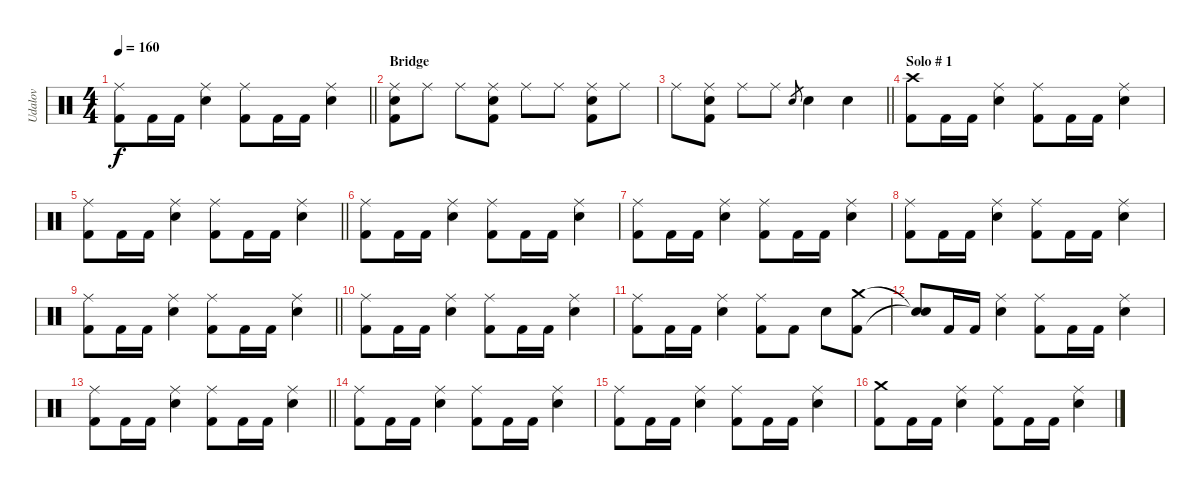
\track ("Udalov" "Udalov") {instrument percussion}
\staff {score}
\articulation defaults
\ts (4 4)
\tempo 160
\clef neutral
\barLineRight lightlight
\ks c
("Kick (hit) 2" "Ride (middle)").8{dy f} "Kick (hit) 2".16 "Kick (hit) 2".16 ("Snare (hit) 2" "Ride (middle)").4 ("Kick (hit) 2" "Ride (middle)").8 "Kick (hit) 2".16 "Kick (hit) 2".16 ("Snare (hit) 2" "Ride (middle)").4 |
\section ("" "Bridge")
("Snare (hit) 2" "Ride (middle)" "Kick (hit) 2").8 "Ride (middle)".8 "Ride (middle)".8 ("Snare (hit) 2" "Ride (middle)" "Kick (hit) 2").8 "Ride (middle)".8 "Ride (middle)".8 ("Snare (hit) 2" "Ride (middle)" "Kick (hit) 2").8 "Ride (middle)".8 |
\barLineRight lightlight "Ride (middle)".8
("Snare (hit) 2" "Ride (middle)" "Kick (hit) 2").8 "Ride (middle)".8 "Ride (middle)".8 "Snare (hit) 2".8{gr} "Snare (hit) 2".4 "Snare (hit) 2".4 |
\section ("" "Solo # 1")
("Kick (hit) 2" "Crash high (hit)").8 "Kick (hit) 2".16 "Kick (hit) 2".16 ("Snare (hit) 2" "Ride (middle)").4 ("Kick (hit) 2" "Ride (middle)").8 "Kick (hit) 2".16 "Kick (hit) 2".16 ("Snare (hit) 2" "Ride (middle)").4 |
\barLineRight lightlight
("Kick (hit) 2" "Ride (middle)").8 "Kick (hit) 2".16 "Kick (hit) 2".16 ("Snare (hit) 2" "Ride (middle)").4 ("Kick (hit) 2" "Ride (middle)").8 "Kick (hit) 2".16 "Kick (hit) 2".16 ("Snare (hit) 2" "Ride (middle)").4 |
("Kick (hit) 2" "Ride (middle)").8 "Kick (hit) 2".16 "Kick (hit) 2".16 ("Snare (hit) 2" "Ride (middle)").4 ("Kick (hit) 2" "Ride (middle)").8 "Kick (hit) 2".16 "Kick (hit) 2".16 ("Snare (hit) 2" "Ride (middle)").4 |
("Kick (hit) 2" "Ride (middle)").8 "Kick (hit) 2".16 "Kick (hit) 2".16 ("Snare (hit) 2" "Ride (middle)").4 ("Kick (hit) 2" "Ride (middle)").8 "Kick (hit) 2".16 "Kick (hit) 2".16 ("Snare (hit) 2" "Ride (middle)").4 |
("Kick (hit) 2" "Ride (middle)").8 "Kick (hit) 2".16 "Kick (hit) 2".16 ("Snare (hit) 2" "Ride (middle)").4 ("Kick (hit) 2" "Ride (middle)").8 "Kick (hit) 2".16 "Kick (hit) 2".16 ("Snare (hit) 2" "Ride (middle)").4 |
\barLineRight lightlight
("Kick (hit) 2" "Ride (middle)").8 "Kick (hit) 2".16 "Kick (hit) 2".16 ("Snare (hit) 2" "Ride (middle)").4 ("Kick (hit) 2" "Ride (middle)").8 "Kick (hit) 2".16 "Kick (hit) 2".16 ("Snare (hit) 2" "Ride (middle)").4 |
("Kick (hit) 2" "Ride (middle)").8 "Kick (hit) 2".16 "Kick (hit) 2".16 ("Snare (hit) 2" "Ride (middle)").4 ("Kick (hit) 2" "Ride (middle)").8 "Kick (hit) 2".16 "Kick (hit) 2".16 ("Snare (hit) 2" "Ride (middle)").4 |
("Kick (hit) 2" "Ride (middle)").8 "Kick (hit) 2".16 "Kick (hit) 2".16 ("Snare (hit) 2" "Ride (middle)").4 ("Kick (hit) 2" "Ride (middle)").8 "Kick (hit) 2".8 "Snare (hit) 2".8 ("Kick (hit) 2" "Crash medium (hit)").8 |
("Snare (hit)"{t} "Snare (hit)"{t}).8 "Kick (hit) 2".16 "Kick (hit) 2".16 ("Snare (hit) 2" "Ride (middle)").4 ("Kick (hit) 2" "Ride (middle)").8 "Kick (hit) 2".16 "Kick (hit) 2".16 ("Snare (hit) 2" "Ride (middle)").4 |
\barLineRight lightlight
("Kick (hit) 2" "Ride (middle)").8 "Kick (hit) 2".16 "Kick (hit) 2".16 ("Snare (hit) 2" "Ride (middle)").4 ("Kick (hit) 2" "Ride (middle)").8 "Kick (hit) 2".16 "Kick (hit) 2".16 ("Snare (hit) 2" "Ride (middle)").4 |
("Kick (hit) 2" "Ride (middle)").8 "Kick (hit) 2".16 "Kick (hit) 2".16 ("Snare (hit) 2" "Ride (middle)").4 ("Kick (hit) 2" "Ride (middle)").8 "Kick (hit) 2".16 "Kick (hit) 2".16 ("Snare (hit) 2" "Ride (middle)").4 |
("Kick (hit) 2" "Ride (middle)").8 "Kick (hit) 2".16 "Kick (hit) 2".16 ("Snare (hit) 2" "Ride (middle)").4 ("Kick (hit) 2" "Ride (middle)").8 "Kick (hit) 2".16 "Kick (hit) 2".16 ("Snare (hit) 2" "Ride (middle)").4 |
("Kick (hit) 2" "Crash medium (hit)").8 "Kick (hit) 2".16 "Kick (hit) 2".16 ("Snare (hit) 2" "Ride (middle)").4 ("Kick (hit) 2" "Ride (middle)").8 "Kick (hit) 2".16 "Kick (hit) 2".16 ("Snare (hit) 2" "Ride (middle)").4
